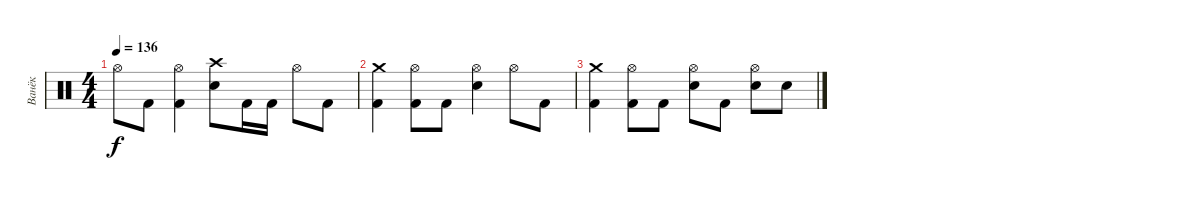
\track ("Ванёк" "Ванёк") {instrument percussion}
\staff {score}
\articulation defaults
\ts (4 4)
\tempo 136
\clef neutral
\ks c "Hi-Hat (open)".8{dy f} "Kick (hit) 2".8
("Hi-Hat (open)" "Kick (hit) 2").4 ("Crash high (hit)" "Snare (hit) 2").8 "Kick (hit) 2".16 "Kick (hit) 2".16 "Hi-Hat (open)".8 "Kick (hit) 2".8 |
("Crash medium (hit)" "Kick (hit) 2").4 ("Hi-Hat (open)" "Kick (hit) 2").8 "Kick (hit) 2".8 ("Hi-Hat (open)" "Snare (hit) 2").4 "Hi-Hat (open)".8 "Kick (hit) 2".8 |
("Crash medium (hit)" "Kick (hit) 2").4 ("Hi-Hat (open)" "Kick (hit) 2").8 "Kick (hit) 2".8 ("Hi-Hat (open)" "Snare (hit) 2").8 "Kick (hit) 2".8 ("Hi-Hat (open)" "Snare (hit) 2").8 "Snare (hit) 2".8
